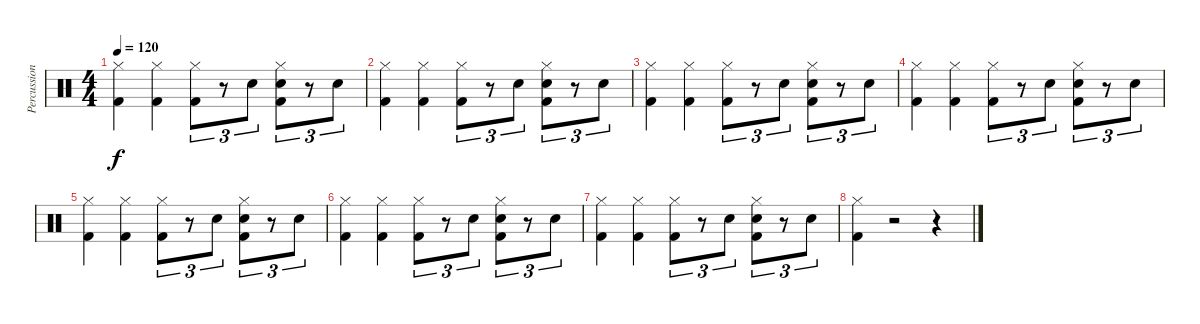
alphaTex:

\track ("Percussions" "Percussion") {instrument percussion}
\staff {score}
\articulation defaults
\ts (4 4)
\tempo 120
\clef neutral
\ks c
("Hi-Hat (closed)" "Kick (hit) 2").4{dy f} ("Hi-Hat (closed)" "Kick (hit) 2").4 ("Hi-Hat (closed)" "Kick (hit) 2").8{tu (3 2)} r.8{tu (3 2)} "Electric Snare (hit)".8{tu (3 2)} ("Hi-Hat (closed)" "Electric Snare (hit)" "Kick (hit) 2").8{tu (3 2)} r.8{tu (3 2)} "Electric Snare (hit)".8{tu (3 2)} |
("Hi-Hat (closed)" "Kick (hit) 2").4 ("Hi-Hat (closed)" "Kick (hit) 2").4 ("Hi-Hat (closed)" "Kick (hit) 2").8{tu (3 2)} r.8{tu (3 2)} "Electric Snare (hit)".8{tu (3 2)} ("Hi-Hat (closed)" "Electric Snare (hit)" "Kick (hit) 2").8{tu (3 2)} r.8{tu (3 2)} "Electric Snare (hit)".8{tu (3 2)} |
("Hi-Hat (closed)" "Kick (hit) 2").4 ("Hi-Hat (closed)" "Kick (hit) 2").4 ("Hi-Hat (closed)" "Kick (hit) 2").8{tu (3 2)} r.8{tu (3 2)} "Electric Snare (hit)".8{tu (3 2)} ("Hi-Hat (closed)" "Electric Snare (hit)" "Kick (hit) 2").8{tu (3 2)} r.8{tu (3 2)} "Electric Snare (hit)".8{tu (3 2)} |
("Hi-Hat (closed)" "Kick (hit) 2").4 ("Hi-Hat (closed)" "Kick (hit) 2").4 ("Hi-Hat (closed)" "Kick (hit) 2").8{tu (3 2)} r.8{tu (3 2)} "Electric Snare (hit)".8{tu (3 2)} ("Hi-Hat (closed)" "Electric Snare (hit)" "Kick (hit) 2").8{tu (3 2)} r.8{tu (3 2)} "Electric Snare (hit)".8{tu (3 2)} |
("Hi-Hat (closed)" "Kick (hit) 2").4 ("Hi-Hat (closed)" "Kick (hit) 2").4 ("Hi-Hat (closed)" "Kick (hit) 2").8{tu (3 2)} r.8{tu (3 2)} "Electric Snare (hit)".8{tu (3 2)} ("Hi-Hat (closed)" "Electric Snare (hit)" "Kick (hit) 2").8{tu (3 2)} r.8{tu (3 2)} "Electric Snare (hit)".8{tu (3 2)} |
("Hi-Hat (closed)" "Kick (hit) 2").4 ("Hi-Hat (closed)" "Kick (hit) 2").4 ("Hi-Hat (closed)" "Kick (hit) 2").8{tu (3 2)} r.8{tu (3 2)} "Electric Snare (hit)".8{tu (3 2)} ("Hi-Hat (closed)" "Electric Snare (hit)" "Kick (hit) 2").8{tu (3 2)} r.8{tu (3 2)} "Electric Snare (hit)".8{tu (3 2)} |
("Hi-Hat (closed)" "Kick (hit) 2").4 ("Hi-Hat (closed)" "Kick (hit) 2").4 ("Hi-Hat (closed)" "Kick (hit) 2").8{tu (3 2)} r.8{tu (3 2)} "Electric Snare (hit)".8{tu (3 2)} ("Hi-Hat (closed)" "Electric Snare (hit)" "Kick (hit) 2").8{tu (3 2)} r.8{tu (3 2)} "Electric Snare (hit)".8{tu (3 2)} |
("Hi-Hat (closed)" "Kick (hit) 2").4 r.2 r.4
